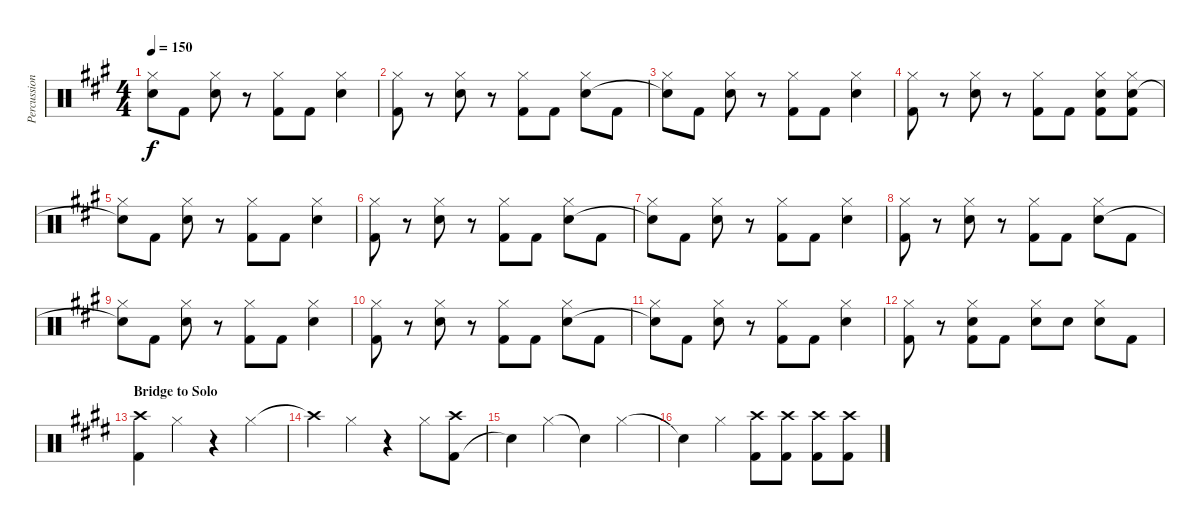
\track ("Percussion" "Percussion") {instrument percussion}
\staff {score}
\articulation defaults
\ts (4 4)
\tempo 150
\clef neutral
\ks f#minor
("Hi-Hat (closed)" "Snare (hit)"{t}).8{dy f} "Kick (hit) 2".8 ("Hi-Hat (closed)" "Snare (hit) 2").8 r.8 ("Hi-Hat (closed)" "Kick (hit) 2").8 "Kick (hit) 2".8 ("Hi-Hat (closed)" "Snare (hit) 2").4 |
("Hi-Hat (closed)" "Kick (hit) 2").8 r.8 ("Hi-Hat (closed)" "Snare (hit) 2").8 r.8 ("Hi-Hat (closed)" "Kick (hit) 2").8 "Kick (hit) 2".8 ("Hi-Hat (closed)" "Snare (hit) 2").8 "Kick (hit) 2".8 |
("Hi-Hat (closed)" "Snare (hit)"{t}).8 "Kick (hit) 2".8 ("Hi-Hat (closed)" "Snare (hit) 2").8 r.8 ("Hi-Hat (closed)" "Kick (hit) 2").8 "Kick (hit) 2".8 ("Hi-Hat (closed)" "Snare (hit) 2").4 |
("Hi-Hat (closed)" "Kick (hit) 2").8 r.8 ("Hi-Hat (closed)" "Snare (hit) 2").8 r.8 ("Hi-Hat (closed)" "Kick (hit) 2").8 "Kick (hit) 2".8 ("Hi-Hat (closed)" "Snare (hit) 2" "Kick (hit) 2").8 ("Hi-Hat (closed)" "Snare (hit) 2" "Kick (hit) 2").8 |
("Hi-Hat (closed)" "Snare (hit)"{t}).8 "Kick (hit) 2".8 ("Hi-Hat (closed)" "Snare (hit) 2").8 r.8 ("Hi-Hat (closed)" "Kick (hit) 2").8 "Kick (hit) 2".8 ("Hi-Hat (closed)" "Snare (hit) 2").4 |
("Hi-Hat (closed)" "Kick (hit) 2").8 r.8 ("Hi-Hat (closed)" "Snare (hit) 2").8 r.8 ("Hi-Hat (closed)" "Kick (hit) 2").8 "Kick (hit) 2".8 ("Hi-Hat (closed)" "Snare (hit) 2").8 "Kick (hit) 2".8 |
("Hi-Hat (closed)" "Snare (hit)"{t}).8 "Kick (hit) 2".8 ("Hi-Hat (closed)" "Snare (hit) 2").8 r.8 ("Hi-Hat (closed)" "Kick (hit) 2").8 "Kick (hit) 2".8 ("Hi-Hat (closed)" "Snare (hit) 2").4 |
("Hi-Hat (closed)" "Kick (hit) 2").8 r.8 ("Hi-Hat (closed)" "Snare (hit) 2").8 r.8 ("Hi-Hat (closed)" "Kick (hit) 2").8 "Kick (hit) 2".8 ("Hi-Hat (closed)" "Snare (hit) 2").8 "Kick (hit) 2".8 |
("Hi-Hat (closed)" "Snare (hit)"{t}).8 "Kick (hit) 2".8 ("Hi-Hat (closed)" "Snare (hit) 2").8 r.8 ("Hi-Hat (closed)" "Kick (hit) 2").8 "Kick (hit) 2".8 ("Hi-Hat (closed)" "Snare (hit) 2").4 |
("Hi-Hat (closed)" "Kick (hit) 2").8 r.8 ("Hi-Hat (closed)" "Snare (hit) 2").8 r.8 ("Hi-Hat (closed)" "Kick (hit) 2").8 "Kick (hit) 2".8 ("Hi-Hat (closed)" "Snare (hit) 2").8 "Kick (hit) 2".8 |
("Hi-Hat (closed)" "Snare (hit)"{t}).8 "Kick (hit) 2".8 ("Hi-Hat (closed)" "Snare (hit) 2").8 r.8 ("Hi-Hat (closed)" "Kick (hit) 2").8 "Kick (hit) 2".8 ("Hi-Hat (closed)" "Snare (hit) 2").4 |
("Hi-Hat (closed)" "Kick (hit) 2").8 r.8 ("Hi-Hat (closed)" "Snare (hit) 2" "Kick (hit) 2").8 "Kick (hit) 2".8 ("Hi-Hat (closed)" "Snare (hit) 2").8 "Snare (hit) 2".8 ("Hi-Hat (closed)" "Snare (hit) 2").8 "Kick (hit) 2".8 |
\section ("" "Bridge to Solo")
\ks c#minor
("Kick (hit) 2" "Crash high (hit)").4 "Hi-Hat (closed)".4 r.4 "Hi-Hat (closed)".4 |
"Crash high (hit)"{t}.4 "Hi-Hat (closed)".4 r.4 "Hi-Hat (closed)".8 ("Kick (hit) 2" "Crash high (hit)").8 |
"Snare (hit)"{t}.4 "Hi-Hat (closed)".4 "Snare (hit)"{t}.4 "Hi-Hat (closed)".4 |
"Snare (hit)"{t}.4 "Hi-Hat (closed)".4 ("Crash high (hit)" "Kick (hit) 2").8 ("Crash high (hit)" "Kick (hit) 2").8 ("Crash high (hit)" "Kick (hit) 2").8 ("Crash high (hit)" "Kick (hit) 2").8
